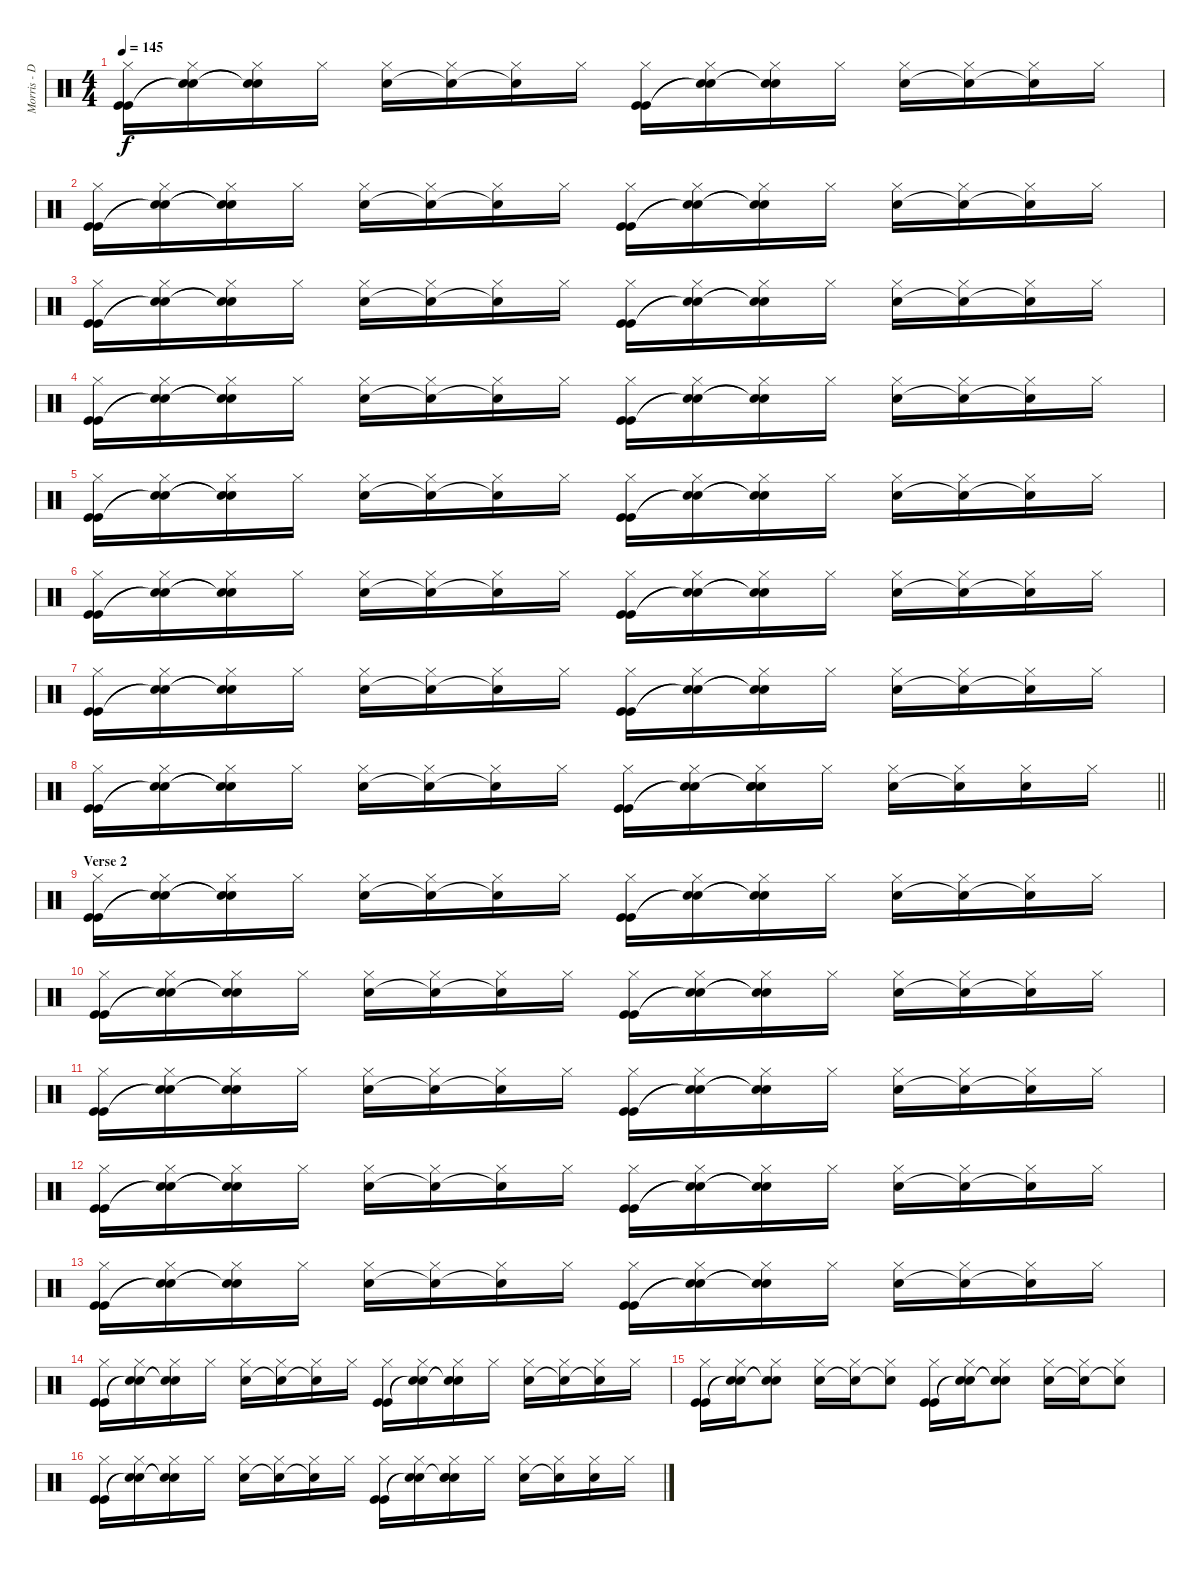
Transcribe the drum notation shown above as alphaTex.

\track ("Morris - Drums" "Morris - D") {instrument percussion}
\staff {score}
\articulation defaults
\ts (4 4)
\tempo 145
\clef neutral
\ks c
("Hi-Hat (closed)" "Kick (hit)" "Kick (hit)").16{dy f} ("Hi-Hat (closed)" "Snare (hit)"{t} "Snare (hit)"{t}).16 ("Hi-Hat (closed)" "Snare (hit)"{t} "Snare (hit)"{t}).16 "Hi-Hat (closed)".16 ("Hi-Hat (closed)" "Snare (hit) 2").16 ("Hi-Hat (closed)" "Snare (hit)"{t}).16 ("Hi-Hat (closed)" "Snare (hit) 2"{t}).16 "Hi-Hat (closed)".16 ("Hi-Hat (closed)" "Kick (hit)" "Kick (hit)").16 ("Hi-Hat (closed)" "Snare (hit)"{t} "Snare (hit)"{t}).16 ("Hi-Hat (closed)" "Snare (hit)"{t} "Snare (hit)"{t}).16 "Hi-Hat (closed)".16 ("Hi-Hat (closed)" "Snare (hit) 2").16 ("Hi-Hat (closed)" "Snare (hit) 2"{t}).16 ("Hi-Hat (closed)" "Snare (hit)"{t}).16 "Hi-Hat (closed)".16 |
("Hi-Hat (closed)" "Kick (hit)" "Kick (hit)").16 ("Hi-Hat (closed)" "Snare (hit)"{t} "Snare (hit)"{t}).16 ("Hi-Hat (closed)" "Snare (hit)"{t} "Snare (hit)"{t}).16 "Hi-Hat (closed)".16 ("Hi-Hat (closed)" "Snare (hit) 2").16 ("Hi-Hat (closed)" "Snare (hit)"{t}).16 ("Hi-Hat (closed)" "Snare (hit) 2"{t}).16 "Hi-Hat (closed)".16 ("Hi-Hat (closed)" "Kick (hit)" "Kick (hit)").16 ("Hi-Hat (closed)" "Snare (hit)"{t} "Snare (hit)"{t}).16 ("Hi-Hat (closed)" "Snare (hit)"{t} "Snare (hit)"{t}).16 "Hi-Hat (closed)".16 ("Hi-Hat (closed)" "Snare (hit) 2").16 ("Hi-Hat (closed)" "Snare (hit) 2"{t}).16 ("Hi-Hat (closed)" "Snare (hit)"{t}).16 "Hi-Hat (closed)".16 |
("Hi-Hat (closed)" "Kick (hit)" "Kick (hit)").16 ("Hi-Hat (closed)" "Snare (hit)"{t} "Snare (hit)"{t}).16 ("Hi-Hat (closed)" "Snare (hit)"{t} "Snare (hit)"{t}).16 "Hi-Hat (closed)".16 ("Hi-Hat (closed)" "Snare (hit) 2").16 ("Hi-Hat (closed)" "Snare (hit)"{t}).16 ("Hi-Hat (closed)" "Snare (hit) 2"{t}).16 "Hi-Hat (closed)".16 ("Hi-Hat (closed)" "Kick (hit)" "Kick (hit)").16 ("Hi-Hat (closed)" "Snare (hit)"{t} "Snare (hit)"{t}).16 ("Hi-Hat (closed)" "Snare (hit)"{t} "Snare (hit)"{t}).16 "Hi-Hat (closed)".16 ("Hi-Hat (closed)" "Snare (hit) 2").16 ("Hi-Hat (closed)" "Snare (hit) 2"{t}).16 ("Hi-Hat (closed)" "Snare (hit)"{t}).16 "Hi-Hat (closed)".16 |
("Hi-Hat (closed)" "Kick (hit)" "Kick (hit)").16 ("Hi-Hat (closed)" "Snare (hit)"{t} "Snare (hit)"{t}).16 ("Hi-Hat (closed)" "Snare (hit)"{t} "Snare (hit)"{t}).16 "Hi-Hat (closed)".16 ("Hi-Hat (closed)" "Snare (hit) 2").16 ("Hi-Hat (closed)" "Snare (hit)"{t}).16 ("Hi-Hat (closed)" "Snare (hit) 2"{t}).16 "Hi-Hat (closed)".16 ("Hi-Hat (closed)" "Kick (hit)" "Kick (hit)").16 ("Hi-Hat (closed)" "Snare (hit)"{t} "Snare (hit)"{t}).16 ("Hi-Hat (closed)" "Snare (hit)"{t} "Snare (hit)"{t}).16 "Hi-Hat (closed)".16 ("Hi-Hat (closed)" "Snare (hit) 2").16 ("Hi-Hat (closed)" "Snare (hit) 2"{t}).16 ("Hi-Hat (closed)" "Snare (hit)"{t}).16 "Hi-Hat (closed)".16 |
("Hi-Hat (closed)" "Kick (hit)" "Kick (hit)").16 ("Hi-Hat (closed)" "Snare (hit)"{t} "Snare (hit)"{t}).16 ("Hi-Hat (closed)" "Snare (hit)"{t} "Snare (hit)"{t}).16 "Hi-Hat (closed)".16 ("Hi-Hat (closed)" "Snare (hit) 2").16 ("Hi-Hat (closed)" "Snare (hit)"{t}).16 ("Hi-Hat (closed)" "Snare (hit) 2"{t}).16 "Hi-Hat (closed)".16 ("Hi-Hat (closed)" "Kick (hit)" "Kick (hit)").16 ("Hi-Hat (closed)" "Snare (hit)"{t} "Snare (hit)"{t}).16 ("Hi-Hat (closed)" "Snare (hit)"{t} "Snare (hit)"{t}).16 "Hi-Hat (closed)".16 ("Hi-Hat (closed)" "Snare (hit) 2").16 ("Hi-Hat (closed)" "Snare (hit) 2"{t}).16 ("Hi-Hat (closed)" "Snare (hit)"{t}).16 "Hi-Hat (closed)".16 |
("Hi-Hat (closed)" "Kick (hit)" "Kick (hit)").16 ("Hi-Hat (closed)" "Snare (hit)"{t} "Snare (hit)"{t}).16 ("Hi-Hat (closed)" "Snare (hit)"{t} "Snare (hit)"{t}).16 "Hi-Hat (closed)".16 ("Hi-Hat (closed)" "Snare (hit) 2").16 ("Hi-Hat (closed)" "Snare (hit)"{t}).16 ("Hi-Hat (closed)" "Snare (hit) 2"{t}).16 "Hi-Hat (closed)".16 ("Hi-Hat (closed)" "Kick (hit)" "Kick (hit)").16 ("Hi-Hat (closed)" "Snare (hit)"{t} "Snare (hit)"{t}).16 ("Hi-Hat (closed)" "Snare (hit)"{t} "Snare (hit)"{t}).16 "Hi-Hat (closed)".16 ("Hi-Hat (closed)" "Snare (hit) 2").16 ("Hi-Hat (closed)" "Snare (hit) 2"{t}).16 ("Hi-Hat (closed)" "Snare (hit)"{t}).16 "Hi-Hat (closed)".16 |
("Hi-Hat (closed)" "Kick (hit)" "Kick (hit)").16 ("Hi-Hat (closed)" "Snare (hit)"{t} "Snare (hit)"{t}).16 ("Hi-Hat (closed)" "Snare (hit)"{t} "Snare (hit)"{t}).16 "Hi-Hat (closed)".16 ("Hi-Hat (closed)" "Snare (hit) 2").16 ("Hi-Hat (closed)" "Snare (hit)"{t}).16 ("Hi-Hat (closed)" "Snare (hit) 2"{t}).16 "Hi-Hat (closed)".16 ("Hi-Hat (closed)" "Kick (hit)" "Kick (hit)").16 ("Hi-Hat (closed)" "Snare (hit)"{t} "Snare (hit)"{t}).16 ("Hi-Hat (closed)" "Snare (hit)"{t} "Snare (hit)"{t}).16 "Hi-Hat (closed)".16 ("Hi-Hat (closed)" "Snare (hit) 2").16 ("Hi-Hat (closed)" "Snare (hit) 2"{t}).16 ("Hi-Hat (closed)" "Snare (hit)"{t}).16 "Hi-Hat (closed)".16 |
\barLineRight lightlight
("Hi-Hat (closed)" "Kick (hit)" "Kick (hit)").16 ("Hi-Hat (closed)" "Snare (hit)"{t} "Snare (hit)"{t}).16 ("Hi-Hat (closed)" "Snare (hit)"{t} "Snare (hit)"{t}).16 "Hi-Hat (closed)".16 ("Hi-Hat (closed)" "Snare (hit) 2").16 ("Hi-Hat (closed)" "Snare (hit)"{t}).16 ("Hi-Hat (closed)" "Snare (hit) 2"{t}).16 "Hi-Hat (closed)".16 ("Hi-Hat (closed)" "Kick (hit)" "Kick (hit)").16 ("Hi-Hat (closed)" "Snare (hit)"{t} "Snare (hit)"{t}).16 ("Hi-Hat (closed)" "Snare (hit) 2" "Snare (hit)"{t} "Snare (hit)").16 "Hi-Hat (closed)".16 ("Hi-Hat (closed)" "Snare (hit) 2").16 ("Hi-Hat (closed)" "Snare (hit) 2"{t}).16 ("Hi-Hat (closed)" "Snare (hit) 2").16 "Hi-Hat (closed)".16 |
\section ("" "Verse 2")
("Hi-Hat (closed)" "Kick (hit)" "Kick (hit)").16 ("Hi-Hat (closed)" "Snare (hit)"{t} "Snare (hit)"{t}).16 ("Hi-Hat (closed)" "Snare (hit)"{t} "Snare (hit)"{t}).16 "Hi-Hat (closed)".16 ("Hi-Hat (closed)" "Snare (hit) 2").16 ("Hi-Hat (closed)" "Snare (hit)"{t}).16 ("Hi-Hat (closed)" "Snare (hit) 2"{t}).16 "Hi-Hat (closed)".16 ("Hi-Hat (closed)" "Kick (hit)" "Kick (hit)").16 ("Hi-Hat (closed)" "Snare (hit)"{t} "Snare (hit)"{t}).16 ("Hi-Hat (closed)" "Snare (hit)"{t} "Snare (hit)"{t}).16 "Hi-Hat (closed)".16 ("Hi-Hat (closed)" "Snare (hit) 2").16 ("Hi-Hat (closed)" "Snare (hit) 2"{t}).16 ("Hi-Hat (closed)" "Snare (hit)"{t}).16 "Hi-Hat (closed)".16 |
("Hi-Hat (closed)" "Kick (hit)" "Kick (hit)").16 ("Hi-Hat (closed)" "Snare (hit)"{t} "Snare (hit)"{t}).16 ("Hi-Hat (closed)" "Snare (hit)"{t} "Snare (hit)"{t}).16 "Hi-Hat (closed)".16 ("Hi-Hat (closed)" "Snare (hit) 2").16 ("Hi-Hat (closed)" "Snare (hit)"{t}).16 ("Hi-Hat (closed)" "Snare (hit) 2"{t}).16 "Hi-Hat (closed)".16 ("Hi-Hat (closed)" "Kick (hit)" "Kick (hit)").16 ("Hi-Hat (closed)" "Snare (hit)"{t} "Snare (hit)"{t}).16 ("Hi-Hat (closed)" "Snare (hit)"{t} "Snare (hit)"{t}).16 "Hi-Hat (closed)".16 ("Hi-Hat (closed)" "Snare (hit) 2").16 ("Hi-Hat (closed)" "Snare (hit) 2"{t}).16 ("Hi-Hat (closed)" "Snare (hit)"{t}).16 "Hi-Hat (closed)".16 |
("Hi-Hat (closed)" "Kick (hit)" "Kick (hit)").16 ("Hi-Hat (closed)" "Snare (hit)"{t} "Snare (hit)"{t}).16 ("Hi-Hat (closed)" "Snare (hit)"{t} "Snare (hit)"{t}).16 "Hi-Hat (closed)".16 ("Hi-Hat (closed)" "Snare (hit) 2").16 ("Hi-Hat (closed)" "Snare (hit)"{t}).16 ("Hi-Hat (closed)" "Snare (hit) 2"{t}).16 "Hi-Hat (closed)".16 ("Hi-Hat (closed)" "Kick (hit)" "Kick (hit)").16 ("Hi-Hat (closed)" "Snare (hit)"{t} "Snare (hit)"{t}).16 ("Hi-Hat (closed)" "Snare (hit)"{t} "Snare (hit)"{t}).16 "Hi-Hat (closed)".16 ("Hi-Hat (closed)" "Snare (hit) 2").16 ("Hi-Hat (closed)" "Snare (hit) 2"{t}).16 ("Hi-Hat (closed)" "Snare (hit)"{t}).16 "Hi-Hat (closed)".16 |
("Hi-Hat (closed)" "Kick (hit)" "Kick (hit)").16 ("Hi-Hat (closed)" "Snare (hit)"{t} "Snare (hit)"{t}).16 ("Hi-Hat (closed)" "Snare (hit)"{t} "Snare (hit)"{t}).16 "Hi-Hat (closed)".16 ("Hi-Hat (closed)" "Snare (hit) 2").16 ("Hi-Hat (closed)" "Snare (hit)"{t}).16 ("Hi-Hat (closed)" "Snare (hit) 2"{t}).16 "Hi-Hat (closed)".16 ("Hi-Hat (closed)" "Kick (hit)" "Kick (hit)").16 ("Hi-Hat (closed)" "Snare (hit)"{t} "Snare (hit)"{t}).16 ("Hi-Hat (closed)" "Snare (hit)"{t} "Snare (hit)"{t}).16 "Hi-Hat (closed)".16 ("Hi-Hat (closed)" "Snare (hit) 2").16 ("Hi-Hat (closed)" "Snare (hit) 2"{t}).16 ("Hi-Hat (closed)" "Snare (hit)"{t}).16 "Hi-Hat (closed)".16 |
("Hi-Hat (closed)" "Kick (hit)" "Kick (hit)").16 ("Hi-Hat (closed)" "Snare (hit)"{t} "Snare (hit)"{t}).16 ("Hi-Hat (closed)" "Snare (hit)"{t} "Snare (hit)"{t}).16 "Hi-Hat (closed)".16 ("Hi-Hat (closed)" "Snare (hit) 2").16 ("Hi-Hat (closed)" "Snare (hit)"{t}).16 ("Hi-Hat (closed)" "Snare (hit) 2"{t}).16 "Hi-Hat (closed)".16 ("Hi-Hat (closed)" "Kick (hit)" "Kick (hit)").16 ("Hi-Hat (closed)" "Snare (hit)"{t} "Snare (hit)"{t}).16 ("Hi-Hat (closed)" "Snare (hit)"{t} "Snare (hit)"{t}).16 "Hi-Hat (closed)".16 ("Hi-Hat (closed)" "Snare (hit) 2").16 ("Hi-Hat (closed)" "Snare (hit) 2"{t}).16 ("Hi-Hat (closed)" "Snare (hit)"{t}).16 "Hi-Hat (closed)".16 |
("Hi-Hat (closed)" "Kick (hit)" "Kick (hit)").16 ("Hi-Hat (closed)" "Snare (hit)"{t} "Snare (hit)"{t}).16 ("Hi-Hat (closed)" "Snare (hit)"{t} "Snare (hit)"{t}).16 "Hi-Hat (closed)".16 ("Hi-Hat (closed)" "Snare (hit) 2").16 ("Hi-Hat (closed)" "Snare (hit)"{t}).16 ("Hi-Hat (closed)" "Snare (hit) 2"{t}).16 "Hi-Hat (closed)".16 ("Hi-Hat (closed)" "Kick (hit)" "Kick (hit)").16 ("Hi-Hat (closed)" "Snare (hit)"{t} "Snare (hit)"{t}).16 ("Hi-Hat (closed)" "Snare (hit)"{t} "Snare (hit)"{t}).16 "Hi-Hat (closed)".16 ("Hi-Hat (closed)" "Snare (hit) 2").16 ("Hi-Hat (closed)" "Snare (hit) 2"{t}).16 ("Hi-Hat (closed)" "Snare (hit)"{t}).16 "Hi-Hat (closed)".16 |
("Hi-Hat (closed)" "Kick (hit)" "Kick (hit)").16 ("Hi-Hat (closed)" "Snare (hit)"{t} "Snare (hit)"{t}).16 ("Hi-Hat (closed)" "Snare (hit)"{t} "Snare (hit)"{t}).8 ("Hi-Hat (closed)" "Snare (hit) 2").16 ("Hi-Hat (closed)" "Snare (hit)"{t}).16 ("Hi-Hat (closed)" "Snare (hit) 2"{t}).8 ("Hi-Hat (closed)" "Kick (hit)" "Kick (hit)").16 ("Hi-Hat (closed)" "Snare (hit)"{t} "Snare (hit)"{t}).16 ("Hi-Hat (closed)" "Snare (hit)"{t} "Snare (hit)"{t}).8 ("Hi-Hat (closed)" "Snare (hit) 2").16 ("Hi-Hat (closed)" "Snare (hit) 2"{t}).16 ("Hi-Hat (closed)" "Snare (hit)"{t}).8 |
("Hi-Hat (closed)" "Kick (hit)" "Kick (hit)").16 ("Hi-Hat (closed)" "Snare (hit)"{t} "Snare (hit)"{t}).16 ("Hi-Hat (closed)" "Snare (hit)"{t} "Snare (hit)"{t}).16 "Hi-Hat (closed)".16 ("Hi-Hat (closed)" "Snare (hit) 2").16 ("Hi-Hat (closed)" "Snare (hit)"{t}).16 ("Hi-Hat (closed)" "Snare (hit) 2"{t}).16 "Hi-Hat (closed)".16 ("Hi-Hat (closed)" "Kick (hit)" "Kick (hit)").16 ("Hi-Hat (closed)" "Snare (hit)"{t} "Snare (hit)"{t}).16 ("Hi-Hat (closed)" "Snare (hit) 2" "Snare (hit)"{t} "Snare (hit)").16 "Hi-Hat (closed)".16 ("Hi-Hat (closed)" "Snare (hit) 2").16 ("Hi-Hat (closed)" "Snare (hit) 2"{t}).16 ("Hi-Hat (closed)" "Snare (hit) 2").16 "Hi-Hat (closed)".16
